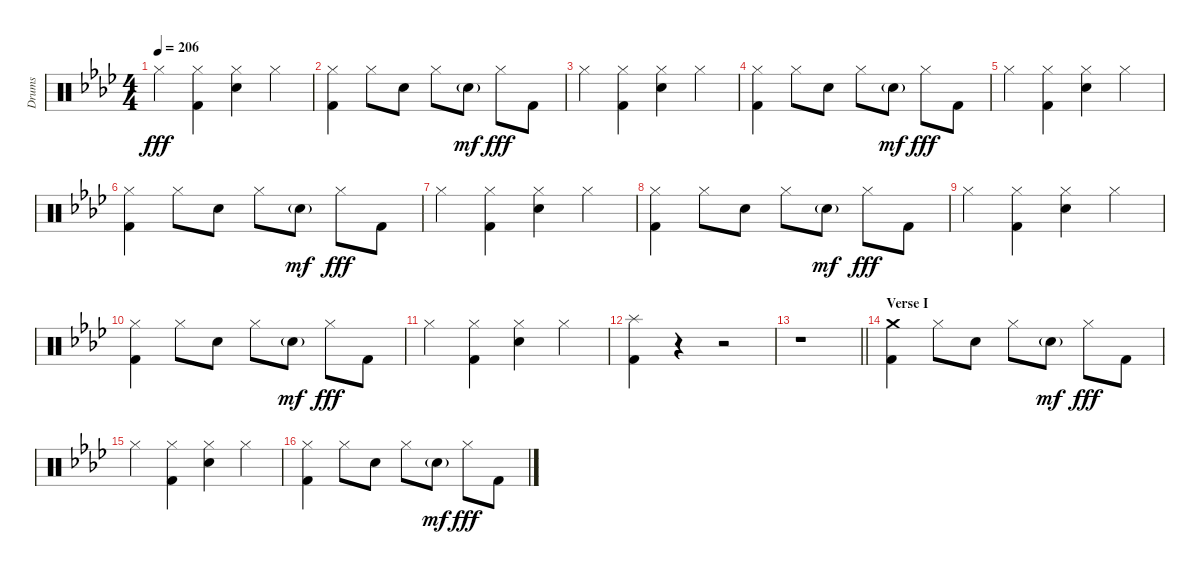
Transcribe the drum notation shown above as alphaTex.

\track ("Drums" "Drums") {instrument percussion}
\staff {score}
\articulation defaults
\ts (4 4)
\tempo 206
\clef neutral
\ks ab "Hi-Hat (closed)".4{dy fff}
("Hi-Hat (closed)" "Kick (hit) 2").4 ("Hi-Hat (closed)" "Electric Snare (hit)").4 "Hi-Hat (closed)".4 |
("Hi-Hat (closed)" "Kick (hit) 2").4 "Hi-Hat (closed)".8 "Electric Snare (hit)".8 "Hi-Hat (closed)".8 "Electric Snare (hit)"{g}.8{dy mf} "Hi-Hat (closed)".8{dy fff} "Kick (hit) 2".8 |
"Hi-Hat (closed)".4 ("Hi-Hat (closed)" "Kick (hit) 2").4 ("Hi-Hat (closed)" "Electric Snare (hit)").4 "Hi-Hat (closed)".4 |
("Hi-Hat (closed)" "Kick (hit) 2").4 "Hi-Hat (closed)".8 "Electric Snare (hit)".8 "Hi-Hat (closed)".8 "Electric Snare (hit)"{g}.8{dy mf} "Hi-Hat (closed)".8{dy fff} "Kick (hit) 2".8 |
"Hi-Hat (closed)".4 ("Hi-Hat (closed)" "Kick (hit) 2").4 ("Hi-Hat (closed)" "Electric Snare (hit)").4 "Hi-Hat (closed)".4 |
("Hi-Hat (closed)" "Kick (hit) 2").4 "Hi-Hat (closed)".8 "Electric Snare (hit)".8 "Hi-Hat (closed)".8 "Electric Snare (hit)"{g}.8{dy mf} "Hi-Hat (closed)".8{dy fff} "Kick (hit) 2".8 |
"Hi-Hat (closed)".4 ("Hi-Hat (closed)" "Kick (hit) 2").4 ("Hi-Hat (closed)" "Electric Snare (hit)").4 "Hi-Hat (closed)".4 |
("Hi-Hat (closed)" "Kick (hit) 2").4 "Hi-Hat (closed)".8 "Electric Snare (hit)".8 "Hi-Hat (closed)".8 "Electric Snare (hit)"{g}.8{dy mf} "Hi-Hat (closed)".8{dy fff} "Kick (hit) 2".8 |
"Hi-Hat (closed)".4 ("Hi-Hat (closed)" "Kick (hit) 2").4 ("Hi-Hat (closed)" "Electric Snare (hit)").4 "Hi-Hat (closed)".4 |
("Hi-Hat (closed)" "Kick (hit) 2").4 "Hi-Hat (closed)".8 "Electric Snare (hit)".8 "Hi-Hat (closed)".8 "Electric Snare (hit)"{g}.8{dy mf} "Hi-Hat (closed)".8{dy fff} "Kick (hit) 2".8 |
"Hi-Hat (closed)".4 ("Hi-Hat (closed)" "Kick (hit) 2").4 ("Hi-Hat (closed)" "Electric Snare (hit)").4 "Hi-Hat (closed)".4 |
("Splash (hit)" "Kick (hit) 2").4 r.4 r.2 |
\barLineRight lightlight
r.1 |
\section ("" "Verse I")
("Crash medium (hit)" "Kick (hit) 2").4 "Hi-Hat (closed)".8 "Electric Snare (hit)".8 "Hi-Hat (closed)".8 "Electric Snare (hit)"{g}.8{dy mf} "Hi-Hat (closed)".8{dy fff} "Kick (hit) 2".8 |
"Hi-Hat (closed)".4 ("Hi-Hat (closed)" "Kick (hit) 2").4 ("Hi-Hat (closed)" "Electric Snare (hit)").4 "Hi-Hat (closed)".4 |
("Hi-Hat (closed)" "Kick (hit) 2").4 "Hi-Hat (closed)".8 "Electric Snare (hit)".8 "Hi-Hat (closed)".8 "Electric Snare (hit)"{g}.8{dy mf} "Hi-Hat (closed)".8{dy fff} "Kick (hit) 2".8
